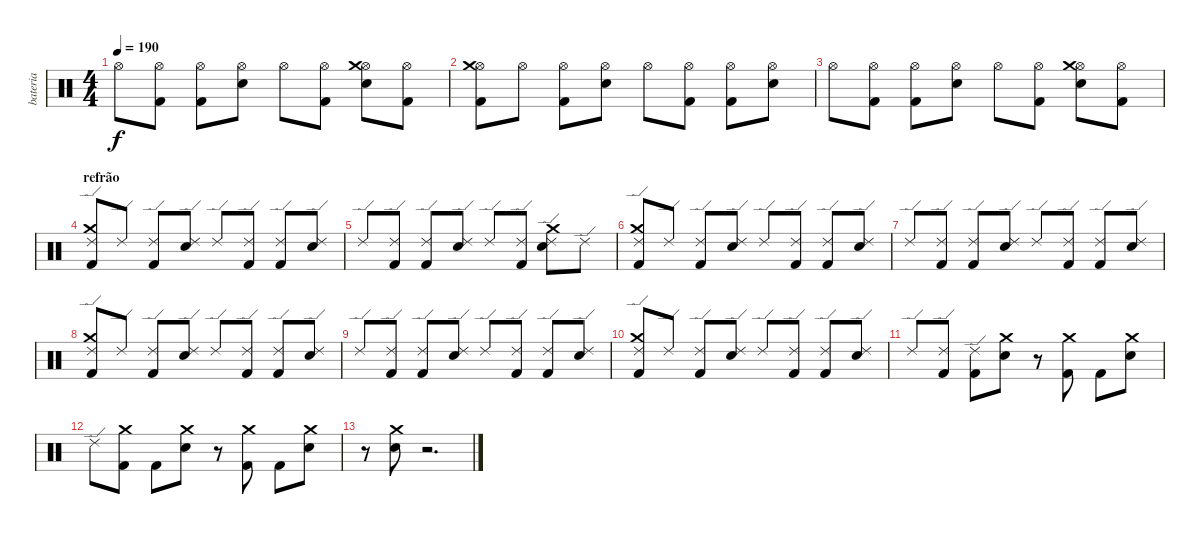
\track ("bateria" "bateria") {instrument percussion}
\staff {score}
\articulation defaults
\ts (4 4)
\tempo 190
\clef neutral
\ks c "Hi-Hat (open)".8{dy f}
("Hi-Hat (open)" "Kick (hit) 2").8 ("Hi-Hat (open)" "Kick (hit) 2").8 ("Hi-Hat (open)" "Electric Snare (hit)").8 "Hi-Hat (open)".8 ("Hi-Hat (open)" "Kick (hit) 2").8 ("Hi-Hat (open)" "Electric Snare (hit)" "Crash medium (hit)").8 ("Hi-Hat (open)" "Kick (hit) 2").8 |
("Hi-Hat (open)" "Kick (hit) 2" "Crash medium (hit)").8 "Hi-Hat (open)".8 ("Hi-Hat (open)" "Kick (hit) 2").8 ("Hi-Hat (open)" "Electric Snare (hit)").8 "Hi-Hat (open)".8 ("Hi-Hat (open)" "Kick (hit) 2").8 ("Hi-Hat (open)" "Kick (hit) 2").8 ("Hi-Hat (open)" "Electric Snare (hit)").8 |
"Hi-Hat (open)".8 ("Hi-Hat (open)" "Kick (hit) 2").8 ("Hi-Hat (open)" "Kick (hit) 2").8 ("Hi-Hat (open)" "Electric Snare (hit)").8 "Hi-Hat (open)".8 ("Hi-Hat (open)" "Kick (hit) 2").8 ("Hi-Hat (open)" "Electric Snare (hit)" "Crash medium (hit)").8 ("Hi-Hat (open)" "Kick (hit) 2").8 |
\section ("" "refrão")
("Ride (edge) 2" "Kick (hit) 2" "Crash medium (hit)").8 "Ride (edge) 2".8 ("Ride (edge) 2" "Kick (hit) 2").8 ("Ride (edge) 2" "Electric Snare (hit)").8 "Ride (edge) 2".8 ("Ride (edge) 2" "Kick (hit) 2").8 ("Ride (edge) 2" "Kick (hit) 2").8 ("Ride (edge) 2" "Electric Snare (hit)").8 |
"Ride (edge) 2".8 ("Ride (edge) 2" "Kick (hit) 2").8 ("Ride (edge) 2" "Kick (hit) 2").8 ("Ride (edge) 2" "Electric Snare (hit)").8 "Ride (edge) 2".8 ("Ride (edge) 2" "Kick (hit) 2").8 ("Ride (edge) 2" "Electric Snare (hit)" "Crash medium (hit)").8 "Ride (edge) 2".8 |
("Ride (edge) 2" "Kick (hit) 2" "Crash medium (hit)").8 "Ride (edge) 2".8 ("Ride (edge) 2" "Kick (hit) 2").8 ("Ride (edge) 2" "Electric Snare (hit)").8 "Ride (edge) 2".8 ("Ride (edge) 2" "Kick (hit) 2").8 ("Ride (edge) 2" "Kick (hit) 2").8 ("Ride (edge) 2" "Electric Snare (hit)").8 |
"Ride (edge) 2".8 ("Ride (edge) 2" "Kick (hit) 2").8 ("Ride (edge) 2" "Kick (hit) 2").8 ("Ride (edge) 2" "Electric Snare (hit)").8 "Ride (edge) 2".8 ("Ride (edge) 2" "Kick (hit) 2").8 ("Ride (edge) 2" "Kick (hit) 2").8 ("Ride (edge) 2" "Electric Snare (hit)").8 |
("Ride (edge) 2" "Kick (hit) 2" "Crash medium (hit)").8 "Ride (edge) 2".8 ("Ride (edge) 2" "Kick (hit) 2").8 ("Ride (edge) 2" "Electric Snare (hit)").8 "Ride (edge) 2".8 ("Ride (edge) 2" "Kick (hit) 2").8 ("Ride (edge) 2" "Kick (hit) 2").8 ("Ride (edge) 2" "Electric Snare (hit)").8 |
"Ride (edge) 2".8 ("Ride (edge) 2" "Kick (hit) 2").8 ("Ride (edge) 2" "Kick (hit) 2").8 ("Ride (edge) 2" "Electric Snare (hit)").8 "Ride (edge) 2".8 ("Ride (edge) 2" "Kick (hit) 2").8 ("Ride (edge) 2" "Kick (hit) 2").8 ("Ride (edge) 2" "Electric Snare (hit)").8 |
("Ride (edge) 2" "Kick (hit) 2" "Crash medium (hit)").8 "Ride (edge) 2".8 ("Ride (edge) 2" "Kick (hit) 2").8 ("Ride (edge) 2" "Electric Snare (hit)").8 "Ride (edge) 2".8 ("Ride (edge) 2" "Kick (hit) 2").8 ("Ride (edge) 2" "Kick (hit) 2").8 ("Ride (edge) 2" "Electric Snare (hit)").8 |
"Ride (edge) 2".8 ("Ride (edge) 2" "Kick (hit) 2").8 ("Ride (edge) 2" "Kick (hit) 2").8 ("Crash medium (hit)" "Electric Snare (hit)").8 r.8 ("Crash medium (hit)" "Kick (hit) 2").8 "Kick (hit) 2".8 ("Crash medium (hit)" "Electric Snare (hit)").8 |
"Ride (edge) 2".8 ("Crash medium (hit)" "Kick (hit) 2").8 "Kick (hit) 2".8 ("Crash medium (hit)" "Electric Snare (hit)").8 r.8 ("Crash medium (hit)" "Kick (hit) 2").8 "Kick (hit) 2".8 ("Crash medium (hit)" "Electric Snare (hit)").8 |
r.8 ("Crash medium (hit)" "Electric Snare (hit)").8 r.2{d}
